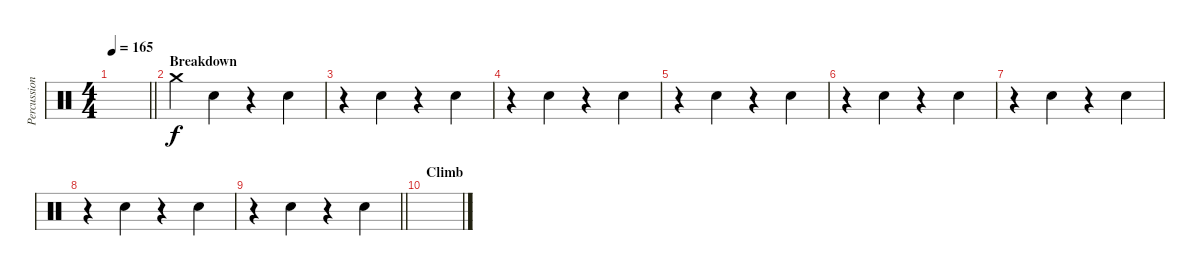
\track ("Percussion2" "Percussion") {instrument percussion}
\staff {score}
\articulation defaults
\ts (4 4)
\tempo 165
\clef neutral
\barLineRight lightlight
\ks c
|
\section ("" "Breakdown")
"Crash medium (hit)".4{volume 13} "Hand Clap (hit)".4{volume 13} r.4 "Hand Clap (hit)".4{volume 13} |
r.4 "Hand Clap (hit)".4{volume 13} r.4 "Hand Clap (hit)".4{volume 13} |
r.4 "Hand Clap (hit)".4{volume 13} r.4 "Hand Clap (hit)".4{volume 13} |
r.4 "Hand Clap (hit)".4{volume 13} r.4 "Hand Clap (hit)".4{volume 13} |
r.4 "Hand Clap (hit)".4 r.4 "Hand Clap (hit)".4 |
r.4 "Hand Clap (hit)".4 r.4 "Hand Clap (hit)".4 |
r.4 "Hand Clap (hit)".4 r.4 "Hand Clap (hit)".4 |
\barLineRight lightlight
r.4 "Hand Clap (hit)".4 r.4 "Hand Clap (hit)".4 |
\section ("" "Climb")
